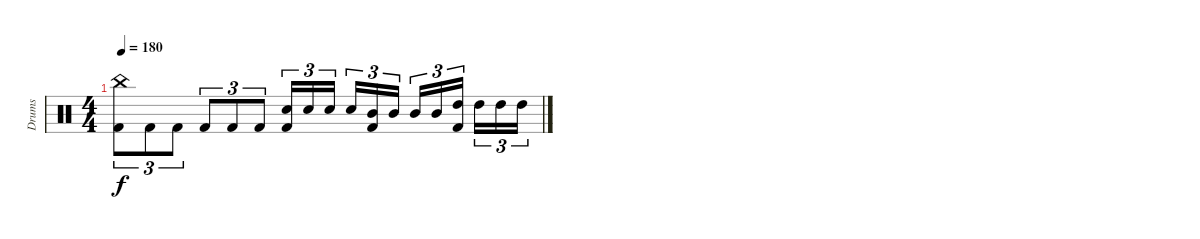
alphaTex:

\track ("Drums" "Drums") {instrument percussion}
\staff {score}
\articulation defaults
\ts (4 4)
\tempo 180
\clef neutral
\ks c
("China (hit)" "Kick (hit) 2").8{tu (3 2) dy f} "Kick (hit) 2".8{tu (3 2)} "Kick (hit) 2".8{tu (3 2)} "Kick (hit) 2".8{tu (3 2)} "Kick (hit) 2".8{tu (3 2)} "Kick (hit) 2".8{tu (3 2)} ("Snare (hit) 2" "Kick (hit) 2").16{tu (3 2)} "Snare (hit) 2".16{tu (3 2)} "Snare (hit) 2".16{tu (3 2) beam splitsecondary} "Snare (hit) 2".16{tu (3 2)} ("Mid Tom (hit)" "Kick (hit) 2").16{tu (3 2)} "Mid Tom (hit)".16{tu (3 2)} "Mid Tom (hit)".16{tu (3 2)} "Mid Tom (hit)".16{tu (3 2)} ("High Tom (hit)" "Kick (hit) 2").16{tu (3 2) beam splitsecondary} "High Tom (hit)".16{tu (3 2)} "High Tom (hit)".16{tu (3 2)} "High Tom (hit)".16{tu (3 2)}
